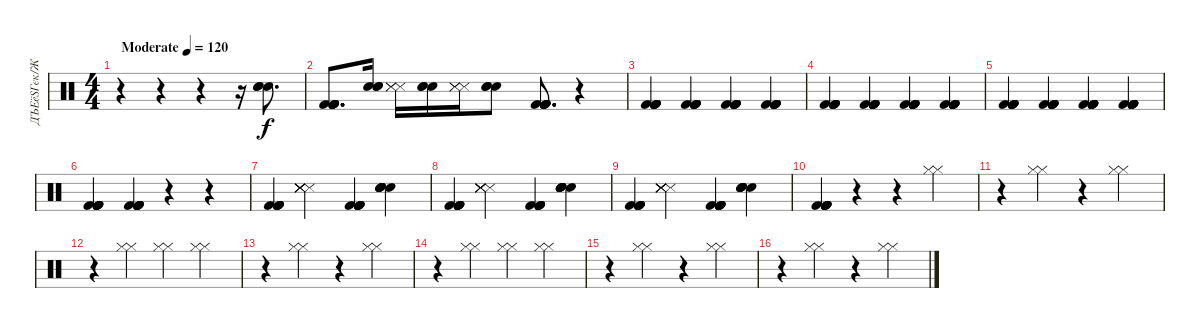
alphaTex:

\track ("ДЪЕёЅГєк/ЖК" "ДЪЕёЅГєк/Ж") {instrument percussion}
\staff {score}
\articulation defaults
\ts (4 4)
\tempo (120 "Moderate")
\clef neutral
\ks c
r.4{dy f} r.4 r.4 r.16 ("Hand Clap (hit)" "Hand Clap (hit)" "Hand Clap (hit)").8{d} |
("Kick (hit) 2" "Kick (hit) 2" "Kick (hit) 2" "Kick (hit) 2" "Kick (hit) 2" "Kick (hit) 2").8{d} ("Hand Clap (hit)" "Hand Clap (hit)" "Hand Clap (hit)").16 ("Metronome (hit)" "Metronome (hit)" "Metronome (hit)").16 ("Hand Clap (hit)" "Hand Clap (hit)" "Hand Clap (hit)").16 ("Metronome (hit)" "Metronome (hit)" "Metronome (hit)").16 ("Hand Clap (hit)" "Hand Clap (hit)" "Hand Clap (hit)").8 ("Kick (hit) 2" "Kick (hit) 2" "Kick (hit) 2" "Kick (hit) 2" "Kick (hit) 2" "Kick (hit) 2").8{d} r.4 |
("Kick (hit) 2" "Kick (hit) 2" "Kick (hit) 2" "Kick (hit) 2" "Kick (hit) 2" "Kick (hit) 2").4 ("Kick (hit) 2" "Kick (hit) 2" "Kick (hit) 2" "Kick (hit) 2" "Kick (hit) 2" "Kick (hit) 2").4 ("Kick (hit) 2" "Kick (hit) 2" "Kick (hit) 2" "Kick (hit) 2" "Kick (hit) 2" "Kick (hit) 2").4 ("Kick (hit) 2" "Kick (hit) 2" "Kick (hit) 2" "Kick (hit) 2" "Kick (hit) 2" "Kick (hit) 2").4 |
("Kick (hit) 2" "Kick (hit) 2" "Kick (hit) 2" "Kick (hit) 2" "Kick (hit) 2" "Kick (hit) 2").4 ("Kick (hit) 2" "Kick (hit) 2" "Kick (hit) 2" "Kick (hit) 2" "Kick (hit) 2" "Kick (hit) 2").4 ("Kick (hit) 2" "Kick (hit) 2" "Kick (hit) 2" "Kick (hit) 2" "Kick (hit) 2" "Kick (hit) 2").4 ("Kick (hit) 2" "Kick (hit) 2" "Kick (hit) 2" "Kick (hit) 2" "Kick (hit) 2" "Kick (hit) 2").4 |
("Kick (hit) 2" "Kick (hit) 2" "Kick (hit) 2" "Kick (hit) 2" "Kick (hit) 2" "Kick (hit) 2").4 ("Kick (hit) 2" "Kick (hit) 2" "Kick (hit) 2" "Kick (hit) 2" "Kick (hit) 2" "Kick (hit) 2").4 ("Kick (hit) 2" "Kick (hit) 2" "Kick (hit) 2" "Kick (hit) 2" "Kick (hit) 2" "Kick (hit) 2").4 ("Kick (hit) 2" "Kick (hit) 2" "Kick (hit) 2" "Kick (hit) 2" "Kick (hit) 2" "Kick (hit) 2").4 |
("Kick (hit) 2" "Kick (hit) 2" "Kick (hit) 2" "Kick (hit) 2" "Kick (hit) 2" "Kick (hit) 2").4 ("Kick (hit) 2" "Kick (hit) 2" "Kick (hit) 2" "Kick (hit) 2" "Kick (hit) 2" "Kick (hit) 2").4 r.4 r.4 |
("Kick (hit) 2" "Kick (hit) 2" "Kick (hit) 2" "Kick (hit) 2" "Kick (hit) 2" "Kick (hit) 2").4 ("Metronome (hit)" "Metronome (hit)" "Metronome (hit)" "Metronome (hit)" "Metronome (hit)" "Metronome (hit)").4 ("Kick (hit) 2" "Kick (hit) 2" "Kick (hit) 2" "Kick (hit) 2" "Kick (hit) 2" "Kick (hit) 2").4 ("Hand Clap (hit)" "Hand Clap (hit)" "Hand Clap (hit)" "Hand Clap (hit)" "Hand Clap (hit)" "Hand Clap (hit)").4 |
("Kick (hit) 2" "Kick (hit) 2" "Kick (hit) 2" "Kick (hit) 2" "Kick (hit) 2" "Kick (hit) 2").4 ("Metronome (hit)" "Metronome (hit)" "Metronome (hit)" "Metronome (hit)" "Metronome (hit)" "Metronome (hit)").4 ("Kick (hit) 2" "Kick (hit) 2" "Kick (hit) 2" "Kick (hit) 2" "Kick (hit) 2" "Kick (hit) 2").4 ("Hand Clap (hit)" "Hand Clap (hit)" "Hand Clap (hit)" "Hand Clap (hit)" "Hand Clap (hit)" "Hand Clap (hit)").4 |
("Kick (hit) 2" "Kick (hit) 2" "Kick (hit) 2" "Kick (hit) 2" "Kick (hit) 2" "Kick (hit) 2").4 ("Metronome (hit)" "Metronome (hit)" "Metronome (hit)" "Metronome (hit)" "Metronome (hit)" "Metronome (hit)").4 ("Kick (hit) 2" "Kick (hit) 2" "Kick (hit) 2" "Kick (hit) 2" "Kick (hit) 2" "Kick (hit) 2").4 ("Hand Clap (hit)" "Hand Clap (hit)" "Hand Clap (hit)" "Hand Clap (hit)" "Hand Clap (hit)" "Hand Clap (hit)").4 |
("Kick (hit) 2" "Kick (hit) 2" "Kick (hit) 2" "Kick (hit) 2" "Kick (hit) 2" "Kick (hit) 2").4 r.4 r.4 ("Hi-Hat (closed)" "Hi-Hat (closed)").4 |
r.4 ("Hi-Hat (closed)" "Hi-Hat (closed)").4 r.4 ("Hi-Hat (closed)" "Hi-Hat (closed)").4 |
r.4 ("Hi-Hat (closed)" "Hi-Hat (closed)").4 ("Hi-Hat (closed)" "Hi-Hat (closed)").4 ("Hi-Hat (closed)" "Hi-Hat (closed)").4 |
r.4 ("Hi-Hat (closed)" "Hi-Hat (closed)").4 r.4 ("Hi-Hat (closed)" "Hi-Hat (closed)").4 |
r.4 ("Hi-Hat (closed)" "Hi-Hat (closed)").4 ("Hi-Hat (closed)" "Hi-Hat (closed)").4 ("Hi-Hat (closed)" "Hi-Hat (closed)").4 |
r.4 ("Hi-Hat (closed)" "Hi-Hat (closed)").4 r.4 ("Hi-Hat (closed)" "Hi-Hat (closed)").4 |
r.4 ("Hi-Hat (closed)" "Hi-Hat (closed)").4 r.4 ("Hi-Hat (closed)" "Hi-Hat (closed)").4
